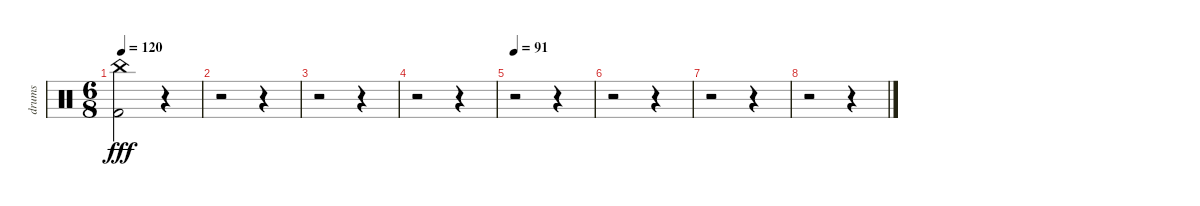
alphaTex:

\track ("drums" "drums") {instrument percussion}
\staff {score}
\articulation defaults
\ts (6 8)
\tempo 120
\clef neutral
\ks c
("China (hit)" "Kick (hit) 2").2{dy fff} r.4 |
r.2 r.4 |
r.2 r.4 |
r.2 r.4 |
\tempo 91
r.2 r.4 |
r.2 r.4 |
r.2 r.4 |
r.2 r.4
